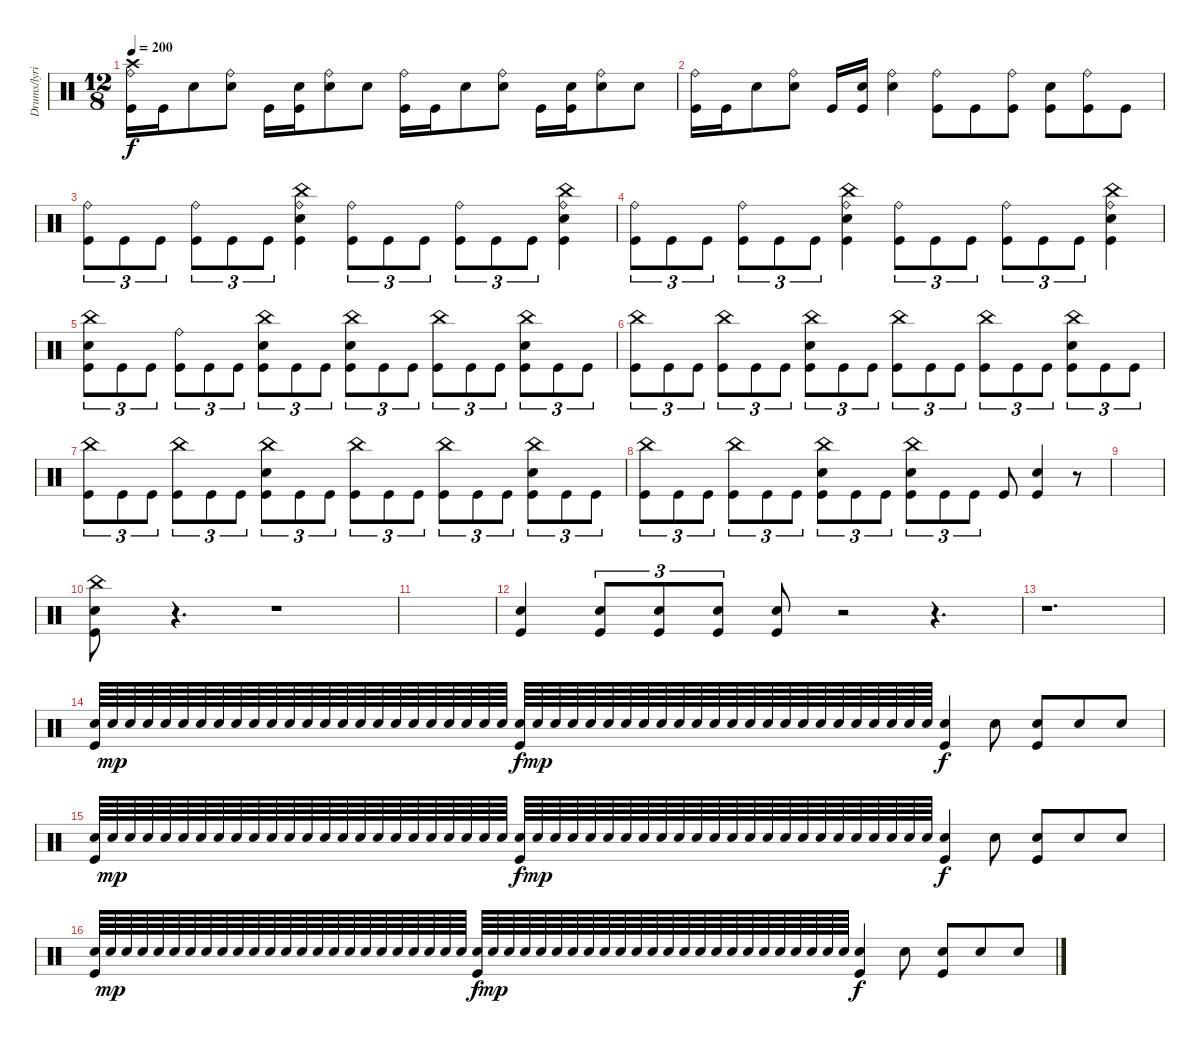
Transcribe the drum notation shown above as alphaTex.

\track ("Drums/lyrics" "Drums/lyri") {instrument percussion}
\staff {score}
\articulation defaults
\ts (12 8)
\tempo 200
\clef neutral
\ks c
("Crash high (hit)" "Ride (bell)" "Kick (hit)").16{dy f} "Kick (hit)".16 "Snare (hit)".8 ("Ride (bell)" "Snare (hit)").8 "Kick (hit)".16 ("Snare (hit) 2" "Kick (hit)").16 ("Ride (bell)" "Snare (hit)").8 "Snare (hit)".8 ("Ride (bell)" "Kick (hit)").16 "Kick (hit)".16 "Snare (hit)".8 ("Ride (bell)" "Snare (hit)").8 "Kick (hit)".16 ("Snare (hit) 2" "Kick (hit)").16 ("Ride (bell)" "Snare (hit)").8 "Snare (hit)".8 |
("Ride (bell)" "Kick (hit)").16 "Kick (hit)".16 "Snare (hit)".8 ("Ride (bell)" "Snare (hit)").8 "Kick (hit)".16 ("Snare (hit) 2" "Kick (hit)").16 ("Ride (bell)" "Snare (hit)").4 ("Ride (bell)" "Kick (hit)").8 "Kick (hit)".8 ("Ride (bell)" "Kick (hit)").8 ("Snare (hit) 2" "Kick (hit)").8 ("Ride (bell)" "Kick (hit)").8 "Kick (hit)".8 |
("Ride (bell)" "Kick (hit)").8{tu (3 2)} "Kick (hit)".8{tu (3 2)} "Kick (hit)".8{tu (3 2)} ("Ride (bell)" "Kick (hit)").8{tu (3 2)} "Kick (hit)".8{tu (3 2)} "Kick (hit)".8{tu (3 2)} ("China (hit)" "Ride (bell)" "Snare (hit) 2" "Kick (hit)").4 ("Ride (bell)" "Kick (hit)").8{tu (3 2)} "Kick (hit)".8{tu (3 2)} "Kick (hit)".8{tu (3 2)} ("Ride (bell)" "Kick (hit)").8{tu (3 2)} "Kick (hit)".8{tu (3 2)} "Kick (hit)".8{tu (3 2)} ("China (hit)" "Ride (bell)" "Snare (hit) 2" "Kick (hit)").4 |
("Ride (bell)" "Kick (hit)").8{tu (3 2)} "Kick (hit)".8{tu (3 2)} "Kick (hit)".8{tu (3 2)} ("Ride (bell)" "Kick (hit)").8{tu (3 2)} "Kick (hit)".8{tu (3 2)} "Kick (hit)".8{tu (3 2)} ("China (hit)" "Ride (bell)" "Snare (hit) 2" "Kick (hit)").4 ("Ride (bell)" "Kick (hit)").8{tu (3 2)} "Kick (hit)".8{tu (3 2)} "Kick (hit)".8{tu (3 2)} ("Ride (bell)" "Kick (hit)").8{tu (3 2)} "Kick (hit)".8{tu (3 2)} "Kick (hit)".8{tu (3 2)} ("China (hit)" "Ride (bell)" "Snare (hit) 2" "Kick (hit)").4 |
("China (hit)" "Snare (hit) 2" "Kick (hit)").8{tu (3 2)} "Kick (hit)".8{tu (3 2)} "Kick (hit)".8{tu (3 2)} ("Ride (bell)" "Kick (hit)").8{tu (3 2)} "Kick (hit)".8{tu (3 2)} "Kick (hit)".8{tu (3 2)} ("China (hit)" "Snare (hit) 2" "Kick (hit)").8{tu (3 2)} "Kick (hit)".8{tu (3 2)} "Kick (hit)".8{tu (3 2)} ("China (hit)" "Snare (hit) 2" "Kick (hit)").8{tu (3 2)} "Kick (hit)".8{tu (3 2)} "Kick (hit)".8{tu (3 2)} ("China (hit)" "Kick (hit)").8{tu (3 2)} "Kick (hit)".8{tu (3 2)} "Kick (hit)".8{tu (3 2)} ("China (hit)" "Snare (hit) 2" "Kick (hit)").8{tu (3 2)} "Kick (hit)".8{tu (3 2)} "Kick (hit)".8{tu (3 2)} |
("China (hit)" "Kick (hit)").8{tu (3 2)} "Kick (hit)".8{tu (3 2)} "Kick (hit)".8{tu (3 2)} ("China (hit)" "Kick (hit)").8{tu (3 2)} "Kick (hit)".8{tu (3 2)} "Kick (hit)".8{tu (3 2)} ("China (hit)" "Snare (hit) 2" "Kick (hit)").8{tu (3 2)} "Kick (hit)".8{tu (3 2)} "Kick (hit)".8{tu (3 2)} ("China (hit)" "Kick (hit)").8{tu (3 2)} "Kick (hit)".8{tu (3 2)} "Kick (hit)".8{tu (3 2)} ("China (hit)" "Kick (hit)").8{tu (3 2)} "Kick (hit)".8{tu (3 2)} "Kick (hit)".8{tu (3 2)} ("China (hit)" "Snare (hit) 2" "Kick (hit)").8{tu (3 2)} "Kick (hit)".8{tu (3 2)} "Kick (hit)".8{tu (3 2)} |
("China (hit)" "Kick (hit)").8{tu (3 2)} "Kick (hit)".8{tu (3 2)} "Kick (hit)".8{tu (3 2)} ("China (hit)" "Kick (hit)").8{tu (3 2)} "Kick (hit)".8{tu (3 2)} "Kick (hit)".8{tu (3 2)} ("China (hit)" "Snare (hit) 2" "Kick (hit)").8{tu (3 2)} "Kick (hit)".8{tu (3 2)} "Kick (hit)".8{tu (3 2)} ("China (hit)" "Kick (hit)").8{tu (3 2)} "Kick (hit)".8{tu (3 2)} "Kick (hit)".8{tu (3 2)} ("China (hit)" "Kick (hit)").8{tu (3 2)} "Kick (hit)".8{tu (3 2)} "Kick (hit)".8{tu (3 2)} ("China (hit)" "Snare (hit) 2" "Kick (hit)").8{tu (3 2)} "Kick (hit)".8{tu (3 2)} "Kick (hit)".8{tu (3 2)} |
("China (hit)" "Kick (hit)").8{tu (3 2)} "Kick (hit)".8{tu (3 2)} "Kick (hit)".8{tu (3 2)} ("China (hit)" "Kick (hit)").8{tu (3 2)} "Kick (hit)".8{tu (3 2)} "Kick (hit)".8{tu (3 2)} ("China (hit)" "Snare (hit) 2" "Kick (hit)").8{tu (3 2)} "Kick (hit)".8{tu (3 2)} "Kick (hit)".8{tu (3 2)} ("China (hit)" "Snare (hit) 2" "Kick (hit)").8{tu (3 2)} "Kick (hit)".8{tu (3 2)} "Kick (hit)".8{tu (3 2)} "Kick (hit)".8 ("Snare (hit) 2" "Kick (hit)").4 r.8 |
|
("China (hit)" "Snare (hit) 2" "Kick (hit)").8 r.4{d} r.1 |
|
("Snare (hit) 2" "Kick (hit)").4 ("Snare (hit) 2" "Kick (hit)").8{tu (3 2)} ("Snare (hit) 2" "Kick (hit)").8{tu (3 2)} ("Snare (hit) 2" "Kick (hit)").8{tu (3 2)} ("Snare (hit) 2" "Kick (hit)").8 r.2 r.4{d} |
r.1{d} |
("Snare (hit) 2" "Kick (hit)").64 "Snare (hit) 2".64{dy mp} "Snare (hit) 2".64 "Snare (hit) 2".64 "Snare (hit) 2".64 "Snare (hit) 2".64 "Snare (hit) 2".64 "Snare (hit) 2".64 "Snare (hit) 2".64 "Snare (hit) 2".64 "Snare (hit) 2".64 "Snare (hit) 2".64 "Snare (hit) 2".64 "Snare (hit) 2".64 "Snare (hit) 2".64 "Snare (hit) 2".64 "Snare (hit) 2".64 "Snare (hit) 2".64 "Snare (hit) 2".64 "Snare (hit) 2".64 "Snare (hit) 2".64 "Snare (hit) 2".64 "Snare (hit) 2".64 "Snare (hit) 2".64 ("Snare (hit) 2" "Kick (hit)").64{dy f} "Snare (hit) 2".64{dy mp} "Snare (hit) 2".64 "Snare (hit) 2".64 "Snare (hit) 2".64 "Snare (hit) 2".64 "Snare (hit) 2".64 "Snare (hit) 2".64 "Snare (hit) 2".64 "Snare (hit) 2".64 "Snare (hit) 2".64 "Snare (hit) 2".64 "Snare (hit) 2".64 "Snare (hit) 2".64 "Snare (hit) 2".64 "Snare (hit) 2".64 "Snare (hit) 2".64 "Snare (hit) 2".64 "Snare (hit) 2".64 "Snare (hit) 2".64 "Snare (hit) 2".64 "Snare (hit) 2".64 "Snare (hit) 2".64 "Snare (hit) 2".64 ("Snare (hit) 2" "Kick (hit)").4{dy f} "Snare (hit) 2".8 ("Snare (hit) 2" "Kick (hit)").8 "Snare (hit) 2".8 "Snare (hit) 2".8 |
("Snare (hit) 2" "Kick (hit)").64 "Snare (hit) 2".64{dy mp} "Snare (hit) 2".64 "Snare (hit) 2".64 "Snare (hit) 2".64 "Snare (hit) 2".64 "Snare (hit) 2".64 "Snare (hit) 2".64 "Snare (hit) 2".64 "Snare (hit) 2".64 "Snare (hit) 2".64 "Snare (hit) 2".64 "Snare (hit) 2".64 "Snare (hit) 2".64 "Snare (hit) 2".64 "Snare (hit) 2".64 "Snare (hit) 2".64 "Snare (hit) 2".64 "Snare (hit) 2".64 "Snare (hit) 2".64 "Snare (hit) 2".64 "Snare (hit) 2".64 "Snare (hit) 2".64 "Snare (hit) 2".64 ("Snare (hit) 2" "Kick (hit)").64{dy f} "Snare (hit) 2".64{dy mp} "Snare (hit) 2".64 "Snare (hit) 2".64 "Snare (hit) 2".64 "Snare (hit) 2".64 "Snare (hit) 2".64 "Snare (hit) 2".64 "Snare (hit) 2".64 "Snare (hit) 2".64 "Snare (hit) 2".64 "Snare (hit) 2".64 "Snare (hit) 2".64 "Snare (hit) 2".64 "Snare (hit) 2".64 "Snare (hit) 2".64 "Snare (hit) 2".64 "Snare (hit) 2".64 "Snare (hit) 2".64 "Snare (hit) 2".64 "Snare (hit) 2".64 "Snare (hit) 2".64 "Snare (hit) 2".64 "Snare (hit) 2".64 ("Snare (hit) 2" "Kick (hit)").4{dy f} "Snare (hit) 2".8 ("Snare (hit) 2" "Kick (hit)").8 "Snare (hit) 2".8 "Snare (hit) 2".8 |
("Snare (hit) 2" "Kick (hit)").64 "Snare (hit) 2".64{dy mp} "Snare (hit) 2".64 "Snare (hit) 2".64 "Snare (hit) 2".64 "Snare (hit) 2".64 "Snare (hit) 2".64 "Snare (hit) 2".64 "Snare (hit) 2".64 "Snare (hit) 2".64 "Snare (hit) 2".64 "Snare (hit) 2".64 "Snare (hit) 2".64 "Snare (hit) 2".64 "Snare (hit) 2".64 "Snare (hit) 2".64 "Snare (hit) 2".64 "Snare (hit) 2".64 "Snare (hit) 2".64 "Snare (hit) 2".64 "Snare (hit) 2".64 "Snare (hit) 2".64 "Snare (hit) 2".64 "Snare (hit) 2".64 ("Snare (hit) 2" "Kick (hit)").64{dy f} "Snare (hit) 2".64{dy mp} "Snare (hit) 2".64 "Snare (hit) 2".64 "Snare (hit) 2".64 "Snare (hit) 2".64 "Snare (hit) 2".64 "Snare (hit) 2".64 "Snare (hit) 2".64 "Snare (hit) 2".64 "Snare (hit) 2".64 "Snare (hit) 2".64 "Snare (hit) 2".64 "Snare (hit) 2".64 "Snare (hit) 2".64 "Snare (hit) 2".64 "Snare (hit) 2".64 "Snare (hit) 2".64 "Snare (hit) 2".64 "Snare (hit) 2".64 "Snare (hit) 2".64 "Snare (hit) 2".64 "Snare (hit) 2".64 "Snare (hit) 2".64 ("Snare (hit) 2" "Kick (hit)").4{dy f} "Snare (hit) 2".8 ("Snare (hit) 2" "Kick (hit)").8 "Snare (hit) 2".8 "Snare (hit) 2".8
